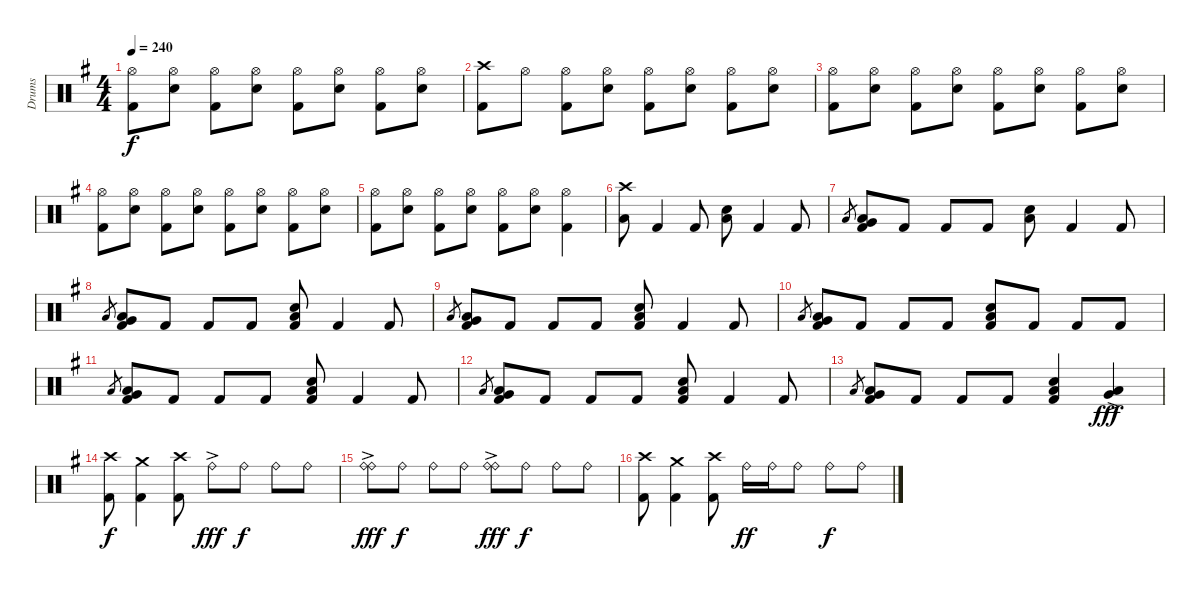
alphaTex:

\track ("Drums" "Drums") {instrument percussion}
\staff {score}
\articulation defaults
\ts (4 4)
\tempo 240
\clef neutral
\ks eminor
("Hi-Hat (open)" "Kick (hit) 2").8{dy f} ("Hi-Hat (open)" "Snare (hit) 2").8 ("Hi-Hat (open)" "Kick (hit) 2").8 ("Hi-Hat (open)" "Snare (hit) 2").8 ("Hi-Hat (open)" "Kick (hit) 2").8 ("Hi-Hat (open)" "Snare (hit) 2").8 ("Hi-Hat (open)" "Kick (hit) 2").8 ("Hi-Hat (open)" "Snare (hit) 2").8 |
("Crash high (hit)" "Kick (hit) 2").8 "Hi-Hat (open)".8 ("Hi-Hat (open)" "Kick (hit) 2").8 ("Hi-Hat (open)" "Snare (hit) 2").8 ("Hi-Hat (open)" "Kick (hit) 2").8 ("Hi-Hat (open)" "Snare (hit) 2").8 ("Hi-Hat (open)" "Kick (hit) 2").8 ("Hi-Hat (open)" "Snare (hit) 2").8 |
("Hi-Hat (open)" "Kick (hit) 2").8 ("Hi-Hat (open)" "Snare (hit) 2").8 ("Hi-Hat (open)" "Kick (hit) 2").8 ("Hi-Hat (open)" "Snare (hit) 2").8 ("Hi-Hat (open)" "Kick (hit) 2").8 ("Hi-Hat (open)" "Snare (hit) 2").8 ("Hi-Hat (open)" "Kick (hit) 2").8 ("Hi-Hat (open)" "Snare (hit) 2").8 |
("Hi-Hat (open)" "Kick (hit) 2").8 ("Hi-Hat (open)" "Snare (hit) 2").8 ("Hi-Hat (open)" "Kick (hit) 2").8 ("Hi-Hat (open)" "Snare (hit) 2").8 ("Hi-Hat (open)" "Kick (hit) 2").8 ("Hi-Hat (open)" "Snare (hit) 2").8 ("Hi-Hat (open)" "Kick (hit) 2").8 ("Hi-Hat (open)" "Snare (hit) 2").8 |
("Hi-Hat (open)" "Kick (hit) 2").8 ("Hi-Hat (open)" "Snare (hit) 2").8 ("Hi-Hat (open)" "Kick (hit) 2").8 ("Hi-Hat (open)" "Snare (hit) 2").8 ("Hi-Hat (open)" "Kick (hit) 2").8 ("Hi-Hat (open)" "Snare (hit) 2").8 ("Hi-Hat (open)" "Kick (hit) 2").4 |
("Crash high (hit)" "Low Tom (hit)").8 "Kick (hit) 2".4 "Kick (hit) 2".8 ("Snare (hit) 2" "Low Tom (hit)").8 "Kick (hit) 2".4 "Kick (hit) 2".8 |
"Low Tom (hit)".8{gr} ("Low Tom (hit)" "Very Low Tom (hit)" "Kick (hit) 2").8 "Kick (hit) 2".8 "Kick (hit) 2".8 "Kick (hit) 2".8 ("Snare (hit) 2" "Low Tom (hit)").8 "Kick (hit) 2".4 "Kick (hit) 2".8 |
"Low Tom (hit)".8{gr} ("Low Tom (hit)" "Very Low Tom (hit)" "Kick (hit) 2").8 "Kick (hit) 2".8 "Kick (hit) 2".8 "Kick (hit) 2".8 ("Snare (hit) 2" "Low Tom (hit)" "Kick (hit) 2").8 "Kick (hit) 2".4 "Kick (hit) 2".8 |
"Low Tom (hit)".8{gr} ("Low Tom (hit)" "Very Low Tom (hit)" "Kick (hit) 2").8 "Kick (hit) 2".8 "Kick (hit) 2".8 "Kick (hit) 2".8 ("Snare (hit) 2" "Low Tom (hit)" "Kick (hit) 2").8 "Kick (hit) 2".4 "Kick (hit) 2".8 |
"Low Tom (hit)".8{gr} ("Low Tom (hit)" "Very Low Tom (hit)" "Kick (hit) 2").8 "Kick (hit) 2".8 "Kick (hit) 2".8 "Kick (hit) 2".8 ("Snare (hit) 2" "Low Tom (hit)" "Kick (hit) 2").8 "Kick (hit) 2".8 "Kick (hit) 2".8 "Kick (hit) 2".8 |
"Low Tom (hit)".8{gr} ("Low Tom (hit)" "Very Low Tom (hit)" "Kick (hit) 2").8 "Kick (hit) 2".8 "Kick (hit) 2".8 "Kick (hit) 2".8 ("Snare (hit) 2" "Low Tom (hit)" "Kick (hit) 2").8 "Kick (hit) 2".4 "Kick (hit) 2".8 |
"Low Tom (hit)".8{gr} ("Low Tom (hit)" "Very Low Tom (hit)" "Kick (hit) 2").8 "Kick (hit) 2".8 "Kick (hit) 2".8 "Kick (hit) 2".8 ("Snare (hit) 2" "Low Tom (hit)" "Kick (hit) 2").8 "Kick (hit) 2".4 "Kick (hit) 2".8 |
"Low Tom (hit)".8{gr} ("Low Tom (hit)" "Very Low Tom (hit)" "Kick (hit) 2").8 "Kick (hit) 2".8 "Kick (hit) 2".8 "Kick (hit) 2".8 ("Snare (hit) 2" "Low Tom (hit)" "Kick (hit) 2").4 ("Low Tom (hit)" "Very Low Tom (hit)"{ac}).4{dy fff} |
("Crash high (hit)" "Kick (hit) 2").8{dy f} ("Crash medium (hit)" "Kick (hit) 2").4 ("Crash high (hit)" "Kick (hit) 2").8 "Ride (bell)"{ac}.8{dy fff} "Ride (bell)".8{dy f} "Ride (bell)".8 "Ride (bell)".8 |
("Ride (bell)"{ac} "Ride (bell)").8{dy fff} "Ride (bell)".8{dy f} "Ride (bell)".8 "Ride (bell)".8 ("Ride (bell)"{ac} "Ride (bell)").8{dy fff} "Ride (bell)".8{dy f} "Ride (bell)".8 "Ride (bell)".8 |
("Crash high (hit)" "Kick (hit) 2").8 ("Crash medium (hit)" "Kick (hit) 2").4 ("Crash high (hit)" "Kick (hit) 2").8 "Ride (bell)".16{dy ff} "Ride (bell)".16 "Ride (bell)".8 "Ride (bell)".8{dy f} "Ride (bell)".8
